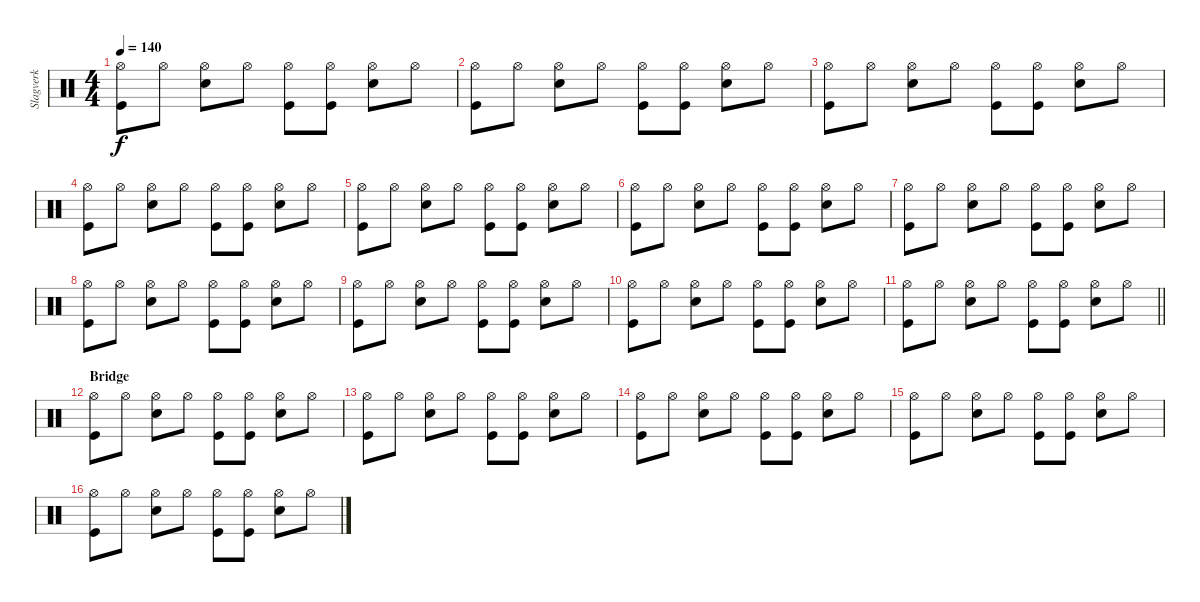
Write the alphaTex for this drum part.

\track ("Slagverk" "Slagverk") {instrument percussion}
\staff {score}
\articulation defaults
\ts (4 4)
\tempo 140
\clef neutral
\ks c
("Hi-Hat (open)" "Kick (hit)").8{dy f} "Hi-Hat (open)".8 ("Hi-Hat (open)" "Snare (hit) 2").8 "Hi-Hat (open)".8 ("Hi-Hat (open)" "Kick (hit)").8 ("Hi-Hat (open)" "Kick (hit)").8 ("Hi-Hat (open)" "Snare (hit) 2").8 "Hi-Hat (open)".8 |
("Hi-Hat (open)" "Kick (hit)").8 "Hi-Hat (open)".8 ("Hi-Hat (open)" "Snare (hit) 2").8 "Hi-Hat (open)".8 ("Hi-Hat (open)" "Kick (hit)").8 ("Hi-Hat (open)" "Kick (hit)").8 ("Hi-Hat (open)" "Snare (hit) 2").8 "Hi-Hat (open)".8 |
("Hi-Hat (open)" "Kick (hit)").8 "Hi-Hat (open)".8 ("Hi-Hat (open)" "Snare (hit) 2").8 "Hi-Hat (open)".8 ("Hi-Hat (open)" "Kick (hit)").8 ("Hi-Hat (open)" "Kick (hit)").8 ("Hi-Hat (open)" "Snare (hit) 2").8 "Hi-Hat (open)".8 |
("Hi-Hat (open)" "Kick (hit)").8 "Hi-Hat (open)".8 ("Hi-Hat (open)" "Snare (hit) 2").8 "Hi-Hat (open)".8 ("Hi-Hat (open)" "Kick (hit)").8 ("Hi-Hat (open)" "Kick (hit)").8 ("Hi-Hat (open)" "Snare (hit) 2").8 "Hi-Hat (open)".8 |
("Hi-Hat (open)" "Kick (hit)").8 "Hi-Hat (open)".8 ("Hi-Hat (open)" "Snare (hit) 2").8 "Hi-Hat (open)".8 ("Hi-Hat (open)" "Kick (hit)").8 ("Hi-Hat (open)" "Kick (hit)").8 ("Hi-Hat (open)" "Snare (hit) 2").8 "Hi-Hat (open)".8 |
("Hi-Hat (open)" "Kick (hit)").8 "Hi-Hat (open)".8 ("Hi-Hat (open)" "Snare (hit) 2").8 "Hi-Hat (open)".8 ("Hi-Hat (open)" "Kick (hit)").8 ("Hi-Hat (open)" "Kick (hit)").8 ("Hi-Hat (open)" "Snare (hit) 2").8 "Hi-Hat (open)".8 |
("Hi-Hat (open)" "Kick (hit)").8 "Hi-Hat (open)".8 ("Hi-Hat (open)" "Snare (hit) 2").8 "Hi-Hat (open)".8 ("Hi-Hat (open)" "Kick (hit)").8 ("Hi-Hat (open)" "Kick (hit)").8 ("Hi-Hat (open)" "Snare (hit) 2").8 "Hi-Hat (open)".8 |
("Hi-Hat (open)" "Kick (hit)").8 "Hi-Hat (open)".8 ("Hi-Hat (open)" "Snare (hit) 2").8 "Hi-Hat (open)".8 ("Hi-Hat (open)" "Kick (hit)").8 ("Hi-Hat (open)" "Kick (hit)").8 ("Hi-Hat (open)" "Snare (hit) 2").8 "Hi-Hat (open)".8 |
("Hi-Hat (open)" "Kick (hit)").8 "Hi-Hat (open)".8 ("Hi-Hat (open)" "Snare (hit) 2").8 "Hi-Hat (open)".8 ("Hi-Hat (open)" "Kick (hit)").8 ("Hi-Hat (open)" "Kick (hit)").8 ("Hi-Hat (open)" "Snare (hit) 2").8 "Hi-Hat (open)".8 |
("Hi-Hat (open)" "Kick (hit)").8 "Hi-Hat (open)".8 ("Hi-Hat (open)" "Snare (hit) 2").8 "Hi-Hat (open)".8 ("Hi-Hat (open)" "Kick (hit)").8 ("Hi-Hat (open)" "Kick (hit)").8 ("Hi-Hat (open)" "Snare (hit) 2").8 "Hi-Hat (open)".8 |
\barLineRight lightlight
("Hi-Hat (open)" "Kick (hit)").8 "Hi-Hat (open)".8 ("Hi-Hat (open)" "Snare (hit) 2").8 "Hi-Hat (open)".8 ("Hi-Hat (open)" "Kick (hit)").8 ("Hi-Hat (open)" "Kick (hit)").8 ("Hi-Hat (open)" "Snare (hit) 2").8 "Hi-Hat (open)".8 |
\section ("" "Bridge")
("Hi-Hat (open)" "Kick (hit)").8 "Hi-Hat (open)".8 ("Hi-Hat (open)" "Snare (hit) 2").8 "Hi-Hat (open)".8 ("Hi-Hat (open)" "Kick (hit)").8 ("Hi-Hat (open)" "Kick (hit)").8 ("Hi-Hat (open)" "Snare (hit) 2").8 "Hi-Hat (open)".8 |
("Hi-Hat (open)" "Kick (hit)").8 "Hi-Hat (open)".8 ("Hi-Hat (open)" "Snare (hit) 2").8 "Hi-Hat (open)".8 ("Hi-Hat (open)" "Kick (hit)").8 ("Hi-Hat (open)" "Kick (hit)").8 ("Hi-Hat (open)" "Snare (hit) 2").8 "Hi-Hat (open)".8 |
("Hi-Hat (open)" "Kick (hit)").8 "Hi-Hat (open)".8 ("Hi-Hat (open)" "Snare (hit) 2").8 "Hi-Hat (open)".8 ("Hi-Hat (open)" "Kick (hit)").8 ("Hi-Hat (open)" "Kick (hit)").8 ("Hi-Hat (open)" "Snare (hit) 2").8 "Hi-Hat (open)".8 |
("Hi-Hat (open)" "Kick (hit)").8 "Hi-Hat (open)".8 ("Hi-Hat (open)" "Snare (hit) 2").8 "Hi-Hat (open)".8 ("Hi-Hat (open)" "Kick (hit)").8 ("Hi-Hat (open)" "Kick (hit)").8 ("Hi-Hat (open)" "Snare (hit) 2").8 "Hi-Hat (open)".8 |
("Hi-Hat (open)" "Kick (hit)").8 "Hi-Hat (open)".8 ("Hi-Hat (open)" "Snare (hit) 2").8 "Hi-Hat (open)".8 ("Hi-Hat (open)" "Kick (hit)").8 ("Hi-Hat (open)" "Kick (hit)").8 ("Hi-Hat (open)" "Snare (hit) 2").8 "Hi-Hat (open)".8
